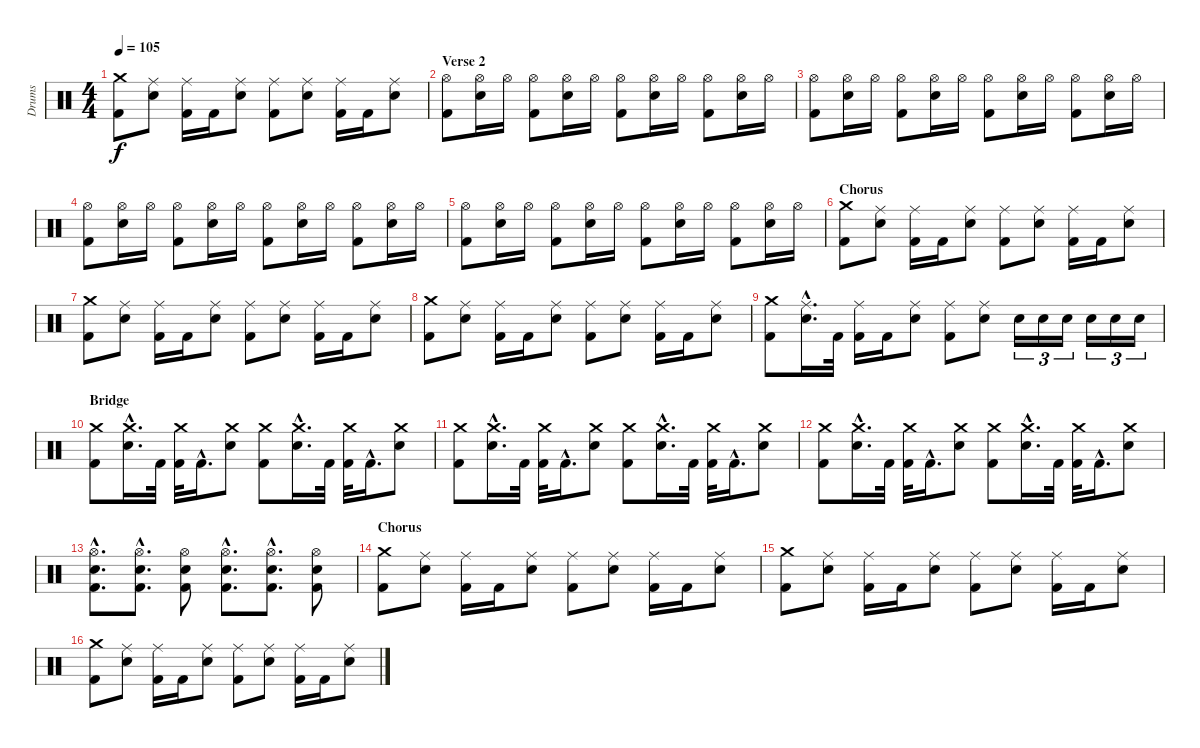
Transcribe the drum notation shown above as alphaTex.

\track ("Drums" "Drums") {instrument percussion}
\staff {score}
\articulation defaults
\ts (4 4)
\tempo 105
\clef neutral
\ks c
("Crash medium (hit)" "Kick (hit) 2").8{dy f} ("Ride (middle)" "Electric Snare (hit)").8 ("Ride (middle)" "Kick (hit) 2").16 "Kick (hit) 2".16 ("Ride (middle)" "Electric Snare (hit)").8 ("Ride (middle)" "Kick (hit) 2").8 ("Ride (middle)" "Electric Snare (hit)").8 ("Ride (middle)" "Kick (hit) 2").16 "Kick (hit) 2".16 ("Ride (middle)" "Electric Snare (hit)").8 |
\section ("" "Verse 2")
("Hi-Hat (open)" "Kick (hit) 2").8 ("Hi-Hat (open)" "Electric Snare (hit)").16 "Hi-Hat (open)".16 ("Hi-Hat (open)" "Kick (hit) 2").8 ("Hi-Hat (open)" "Electric Snare (hit)").16 "Hi-Hat (open)".16 ("Hi-Hat (open)" "Kick (hit) 2").8 ("Hi-Hat (open)" "Electric Snare (hit)").16 "Hi-Hat (open)".16 ("Hi-Hat (open)" "Kick (hit) 2").8 ("Hi-Hat (open)" "Electric Snare (hit)").16 "Hi-Hat (open)".16 |
("Hi-Hat (open)" "Kick (hit) 2").8 ("Hi-Hat (open)" "Electric Snare (hit)").16 "Hi-Hat (open)".16 ("Hi-Hat (open)" "Kick (hit) 2").8 ("Hi-Hat (open)" "Electric Snare (hit)").16 "Hi-Hat (open)".16 ("Hi-Hat (open)" "Kick (hit) 2").8 ("Hi-Hat (open)" "Electric Snare (hit)").16 "Hi-Hat (open)".16 ("Hi-Hat (open)" "Kick (hit) 2").8 ("Hi-Hat (open)" "Electric Snare (hit)").16 "Hi-Hat (open)".16 |
("Hi-Hat (open)" "Kick (hit) 2").8 ("Hi-Hat (open)" "Electric Snare (hit)").16 "Hi-Hat (open)".16 ("Hi-Hat (open)" "Kick (hit) 2").8 ("Hi-Hat (open)" "Electric Snare (hit)").16 "Hi-Hat (open)".16 ("Hi-Hat (open)" "Kick (hit) 2").8 ("Hi-Hat (open)" "Electric Snare (hit)").16 "Hi-Hat (open)".16 ("Hi-Hat (open)" "Kick (hit) 2").8 ("Hi-Hat (open)" "Electric Snare (hit)").16 "Hi-Hat (open)".16 |
("Hi-Hat (open)" "Kick (hit) 2").8 ("Hi-Hat (open)" "Electric Snare (hit)").16 "Hi-Hat (open)".16 ("Hi-Hat (open)" "Kick (hit) 2").8 ("Hi-Hat (open)" "Electric Snare (hit)").16 "Hi-Hat (open)".16 ("Hi-Hat (open)" "Kick (hit) 2").8 ("Hi-Hat (open)" "Electric Snare (hit)").16 "Hi-Hat (open)".16 ("Hi-Hat (open)" "Kick (hit) 2").8 ("Hi-Hat (open)" "Electric Snare (hit)").16 "Hi-Hat (open)".16 |
\section ("" "Chorus")
("Crash medium (hit)" "Kick (hit) 2").8 ("Ride (middle)" "Electric Snare (hit)").8 ("Ride (middle)" "Kick (hit) 2").16 "Kick (hit) 2".16 ("Ride (middle)" "Electric Snare (hit)").8 ("Ride (middle)" "Kick (hit) 2").8 ("Ride (middle)" "Electric Snare (hit)").8 ("Ride (middle)" "Kick (hit) 2").16 "Kick (hit) 2".16 ("Ride (middle)" "Electric Snare (hit)").8 |
("Crash medium (hit)" "Kick (hit) 2").8 ("Ride (middle)" "Electric Snare (hit)").8 ("Ride (middle)" "Kick (hit) 2").16 "Kick (hit) 2".16 ("Ride (middle)" "Electric Snare (hit)").8 ("Ride (middle)" "Kick (hit) 2").8 ("Ride (middle)" "Electric Snare (hit)").8 ("Ride (middle)" "Kick (hit) 2").16 "Kick (hit) 2".16 ("Ride (middle)" "Electric Snare (hit)").8 |
("Crash medium (hit)" "Kick (hit) 2").8 ("Ride (middle)" "Electric Snare (hit)").8 ("Ride (middle)" "Kick (hit) 2").16 "Kick (hit) 2".16 ("Ride (middle)" "Electric Snare (hit)").8 ("Ride (middle)" "Kick (hit) 2").8 ("Ride (middle)" "Electric Snare (hit)").8 ("Ride (middle)" "Kick (hit) 2").16 "Kick (hit) 2".16 ("Ride (middle)" "Electric Snare (hit)").8 |
("Crash medium (hit)" "Kick (hit) 2").8 ("Ride (middle)"{hac} "Electric Snare (hit)"{hac}).16{d} "Kick (hit) 2".32 ("Ride (middle)" "Kick (hit) 2").16 "Kick (hit) 2".16 ("Ride (middle)" "Electric Snare (hit)").8 ("Ride (middle)" "Kick (hit) 2").8 ("Ride (middle)" "Electric Snare (hit)").8 "Electric Snare (hit)".16{tu (3 2)} "Electric Snare (hit)".16{tu (3 2)} "Electric Snare (hit)".16{tu (3 2)} "Electric Snare (hit)".16{tu (3 2)} "Electric Snare (hit)".16{tu (3 2)} "Electric Snare (hit)".16{tu (3 2)} |
\section ("" "Bridge")
("Crash medium (hit)" "Kick (hit) 2").8 ("Crash medium (hit)"{hac} "Electric Snare (hit)"{hac}).16{d} "Kick (hit) 2".32 ("Crash medium (hit)" "Kick (hit) 2").32 "Kick (hit) 2"{hac}.16{d} ("Crash medium (hit)" "Electric Snare (hit)").8 ("Crash medium (hit)" "Kick (hit) 2").8 ("Crash medium (hit)"{hac} "Electric Snare (hit)"{hac}).16{d} "Kick (hit) 2".32 ("Crash medium (hit)" "Kick (hit) 2").32 "Kick (hit) 2"{hac}.16{d} ("Crash medium (hit)" "Electric Snare (hit)").8 |
("Crash medium (hit)" "Kick (hit) 2").8 ("Crash medium (hit)"{hac} "Electric Snare (hit)"{hac}).16{d} "Kick (hit) 2".32 ("Crash medium (hit)" "Kick (hit) 2").32 "Kick (hit) 2"{hac}.16{d} ("Crash medium (hit)" "Electric Snare (hit)").8 ("Crash medium (hit)" "Kick (hit) 2").8 ("Crash medium (hit)"{hac} "Electric Snare (hit)"{hac}).16{d} "Kick (hit) 2".32 ("Crash medium (hit)" "Kick (hit) 2").32 "Kick (hit) 2"{hac}.16{d} ("Crash medium (hit)" "Electric Snare (hit)").8 |
("Crash medium (hit)" "Kick (hit) 2").8 ("Crash medium (hit)"{hac} "Electric Snare (hit)"{hac}).16{d} "Kick (hit) 2".32 ("Crash medium (hit)" "Kick (hit) 2").32 "Kick (hit) 2"{hac}.16{d} ("Crash medium (hit)" "Electric Snare (hit)").8 ("Crash medium (hit)" "Kick (hit) 2").8 ("Crash medium (hit)"{hac} "Electric Snare (hit)"{hac}).16{d} "Kick (hit) 2".32 ("Crash medium (hit)" "Kick (hit) 2").32 "Kick (hit) 2"{hac}.16{d} ("Crash medium (hit)" "Electric Snare (hit)").8 |
("Hi-Hat (open)"{hac} "Electric Snare (hit)"{hac} "Kick (hit) 2"{hac}).8{d} ("Hi-Hat (open)"{hac} "Electric Snare (hit)"{hac} "Kick (hit) 2"{hac}).8{d} ("Hi-Hat (open)" "Electric Snare (hit)" "Kick (hit) 2").8 ("Hi-Hat (open)"{hac} "Electric Snare (hit)"{hac} "Kick (hit) 2"{hac}).8{d} ("Hi-Hat (open)"{hac} "Electric Snare (hit)"{hac} "Kick (hit) 2"{hac}).8{d} ("Hi-Hat (open)" "Electric Snare (hit)" "Kick (hit) 2").8 |
\section ("" "Chorus")
("Crash medium (hit)" "Kick (hit) 2").8 ("Ride (middle)" "Electric Snare (hit)").8 ("Ride (middle)" "Kick (hit) 2").16 "Kick (hit) 2".16 ("Ride (middle)" "Electric Snare (hit)").8 ("Ride (middle)" "Kick (hit) 2").8 ("Ride (middle)" "Electric Snare (hit)").8 ("Ride (middle)" "Kick (hit) 2").16 "Kick (hit) 2".16 ("Ride (middle)" "Electric Snare (hit)").8 |
("Crash medium (hit)" "Kick (hit) 2").8 ("Ride (middle)" "Electric Snare (hit)").8 ("Ride (middle)" "Kick (hit) 2").16 "Kick (hit) 2".16 ("Ride (middle)" "Electric Snare (hit)").8 ("Ride (middle)" "Kick (hit) 2").8 ("Ride (middle)" "Electric Snare (hit)").8 ("Ride (middle)" "Kick (hit) 2").16 "Kick (hit) 2".16 ("Ride (middle)" "Electric Snare (hit)").8 |
("Crash medium (hit)" "Kick (hit) 2").8 ("Ride (middle)" "Electric Snare (hit)").8 ("Ride (middle)" "Kick (hit) 2").16 "Kick (hit) 2".16 ("Ride (middle)" "Electric Snare (hit)").8 ("Ride (middle)" "Kick (hit) 2").8 ("Ride (middle)" "Electric Snare (hit)").8 ("Ride (middle)" "Kick (hit) 2").16 "Kick (hit) 2".16 ("Ride (middle)" "Electric Snare (hit)").8
